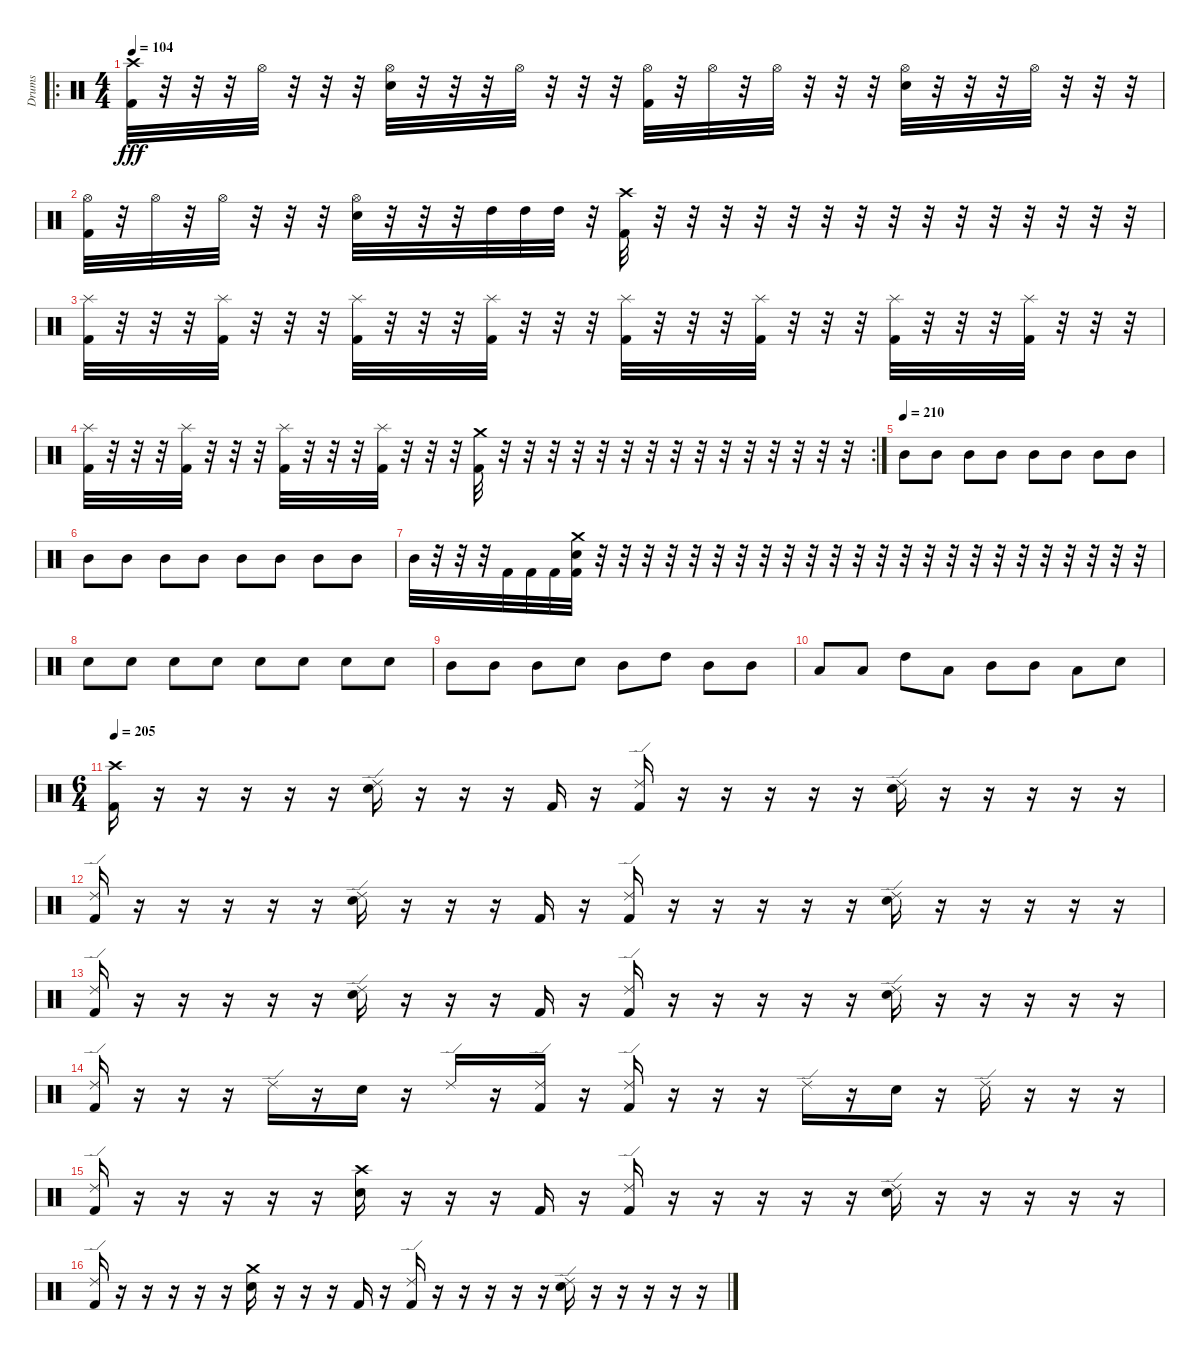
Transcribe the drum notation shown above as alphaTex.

\track ("Drums" "Drums") {instrument percussion}
\staff {score}
\articulation defaults
\ro
\ts (4 4)
\tempo 104
\clef neutral
\ks c
("Crash high (hit)" "Kick (hit) 2").32{dy fff} r.32 r.32 r.32 "Hi-Hat (open)".32 r.32 r.32 r.32 ("Hi-Hat (open)" "Snare (hit) 2").32 r.32 r.32 r.32 "Hi-Hat (open)".32 r.32 r.32 r.32 ("Hi-Hat (open)" "Kick (hit) 2").32 r.32 "Hi-Hat (open)".32 r.32 "Hi-Hat (open)".32 r.32 r.32 r.32 ("Hi-Hat (open)" "Snare (hit) 2").32 r.32 r.32 r.32 "Hi-Hat (open)".32 r.32 r.32 r.32 |
("Hi-Hat (open)" "Kick (hit) 2").32 r.32 "Hi-Hat (open)".32 r.32 "Hi-Hat (open)".32 r.32 r.32 r.32 ("Hi-Hat (open)" "Snare (hit) 2").32 r.32 r.32 r.32 "High Tom (hit)".32 "High Tom (hit)".32 "High Tom (hit)".32 r.32 ("Crash high (hit)" "Kick (hit) 2").32 r.32 r.32 r.32 r.32 r.32 r.32 r.32 r.32 r.32 r.32 r.32 r.32 r.32 r.32 r.32 |
("Splash (hit)" "Kick (hit) 2").32 r.32 r.32 r.32 ("Splash (hit)" "Kick (hit) 2").32 r.32 r.32 r.32 ("Splash (hit)" "Kick (hit) 2").32 r.32 r.32 r.32 ("Splash (hit)" "Kick (hit) 2").32 r.32 r.32 r.32 ("Splash (hit)" "Kick (hit) 2").32 r.32 r.32 r.32 ("Splash (hit)" "Kick (hit) 2").32 r.32 r.32 r.32 ("Splash (hit)" "Kick (hit) 2").32 r.32 r.32 r.32 ("Splash (hit)" "Kick (hit) 2").32 r.32 r.32 r.32 |
\rc 2
("Splash (hit)" "Kick (hit) 2").32 r.32 r.32 r.32 ("Splash (hit)" "Kick (hit) 2").32 r.32 r.32 r.32 ("Splash (hit)" "Kick (hit) 2").32 r.32 r.32 r.32 ("Splash (hit)" "Kick (hit) 2").32 r.32 r.32 r.32 ("Crash medium (hit)" "Kick (hit) 2").32 r.32 r.32 r.32 r.32 r.32 r.32 r.32 r.32 r.32 r.32 r.32 r.32 r.32 r.32 r.32 |
\tempo (210)
"Mid Tom (hit)".8 "Mid Tom (hit)".8 "Mid Tom (hit)".8 "Mid Tom (hit)".8 "Mid Tom (hit)".8 "Mid Tom (hit)".8 "Mid Tom (hit)".8 "Mid Tom (hit)".8 |
"Mid Tom (hit)".8 "Mid Tom (hit)".8 "Mid Tom (hit)".8 "Mid Tom (hit)".8 "Mid Tom (hit)".8 "Mid Tom (hit)".8 "Mid Tom (hit)".8 "Mid Tom (hit)".8 |
"Mid Tom (hit)".32 r.32 r.32 r.32 "Kick (hit) 2".32 "Kick (hit) 2".32 "Kick (hit) 2".32 ("Crash medium (hit)" "Snare (hit) 2" "Kick (hit) 2").32 r.32 r.32 r.32 r.32 r.32 r.32 r.32 r.32 r.32 r.32 r.32 r.32 r.32 r.32 r.32 r.32 r.32 r.32 r.32 r.32 r.32 r.32 r.32 r.32 |
"Snare (hit) 2".8 "Snare (hit) 2".8 "Snare (hit) 2".8 "Snare (hit) 2".8 "Snare (hit) 2".8 "Snare (hit) 2".8 "Snare (hit) 2".8 "Snare (hit) 2".8 |
"Mid Tom (hit)".8 "Mid Tom (hit)".8 "Mid Tom (hit)".8 "Snare (hit) 2".8 "Mid Tom (hit)".8 "High Tom (hit)".8 "Mid Tom (hit)".8 "Mid Tom (hit)".8 |
"Low Tom (hit)".8 "Low Tom (hit)".8 "High Tom (hit)".8 "Low Tom (hit)".8 "Mid Tom (hit)".8 "Mid Tom (hit)".8 "Low Tom (hit)".8 "Snare (hit) 2".8 |
\ts (6 4)
\tempo 205
("Crash high (hit)" "Kick (hit) 2").16 r.16 r.16 r.16 r.16 r.16 ("Ride (edge) 2" "Snare (hit) 2").16 r.16 r.16 r.16 "Kick (hit) 2".16 r.16 ("Ride (edge) 2" "Kick (hit) 2").16 r.16 r.16 r.16 r.16 r.16 ("Ride (edge) 2" "Snare (hit) 2").16 r.16 r.16 r.16 r.16 r.16 |
("Ride (edge) 2" "Kick (hit) 2").16 r.16 r.16 r.16 r.16 r.16 ("Ride (edge) 2" "Snare (hit) 2").16 r.16 r.16 r.16 "Kick (hit) 2".16 r.16 ("Ride (edge) 2" "Kick (hit) 2").16 r.16 r.16 r.16 r.16 r.16 ("Ride (edge) 2" "Snare (hit) 2").16 r.16 r.16 r.16 r.16 r.16 |
("Ride (edge) 2" "Kick (hit) 2").16 r.16 r.16 r.16 r.16 r.16 ("Ride (edge) 2" "Snare (hit) 2").16 r.16 r.16 r.16 "Kick (hit) 2".16 r.16 ("Ride (edge) 2" "Kick (hit) 2").16 r.16 r.16 r.16 r.16 r.16 ("Ride (edge) 2" "Snare (hit) 2").16 r.16 r.16 r.16 r.16 r.16 |
("Ride (edge) 2" "Kick (hit) 2").16 r.16 r.16 r.16 "Ride (edge) 2".16 r.16 "Snare (hit) 2".16 r.16 "Ride (edge) 2".16 r.16 ("Ride (edge) 2" "Kick (hit) 2").16 r.16 ("Ride (edge) 2" "Kick (hit) 2").16 r.16 r.16 r.16 "Ride (edge) 2".16 r.16 "Snare (hit) 2".16 r.16 "Ride (edge) 2".16 r.16 r.16 r.16 |
("Ride (edge) 2" "Kick (hit) 2").16 r.16 r.16 r.16 r.16 r.16 ("Crash high (hit)" "Snare (hit) 2").16 r.16 r.16 r.16 "Kick (hit) 2".16 r.16 ("Ride (edge) 2" "Kick (hit) 2").16 r.16 r.16 r.16 r.16 r.16 ("Ride (edge) 2" "Snare (hit) 2").16 r.16 r.16 r.16 r.16 r.16 |
("Ride (edge) 2" "Kick (hit) 2").16 r.16 r.16 r.16 r.16 r.16 ("Crash medium (hit)" "Snare (hit) 2").16 r.16 r.16 r.16 "Kick (hit) 2".16 r.16 ("Ride (edge) 2" "Kick (hit) 2").16 r.16 r.16 r.16 r.16 r.16 ("Ride (edge) 2" "Snare (hit) 2").16 r.16 r.16 r.16 r.16 r.16
